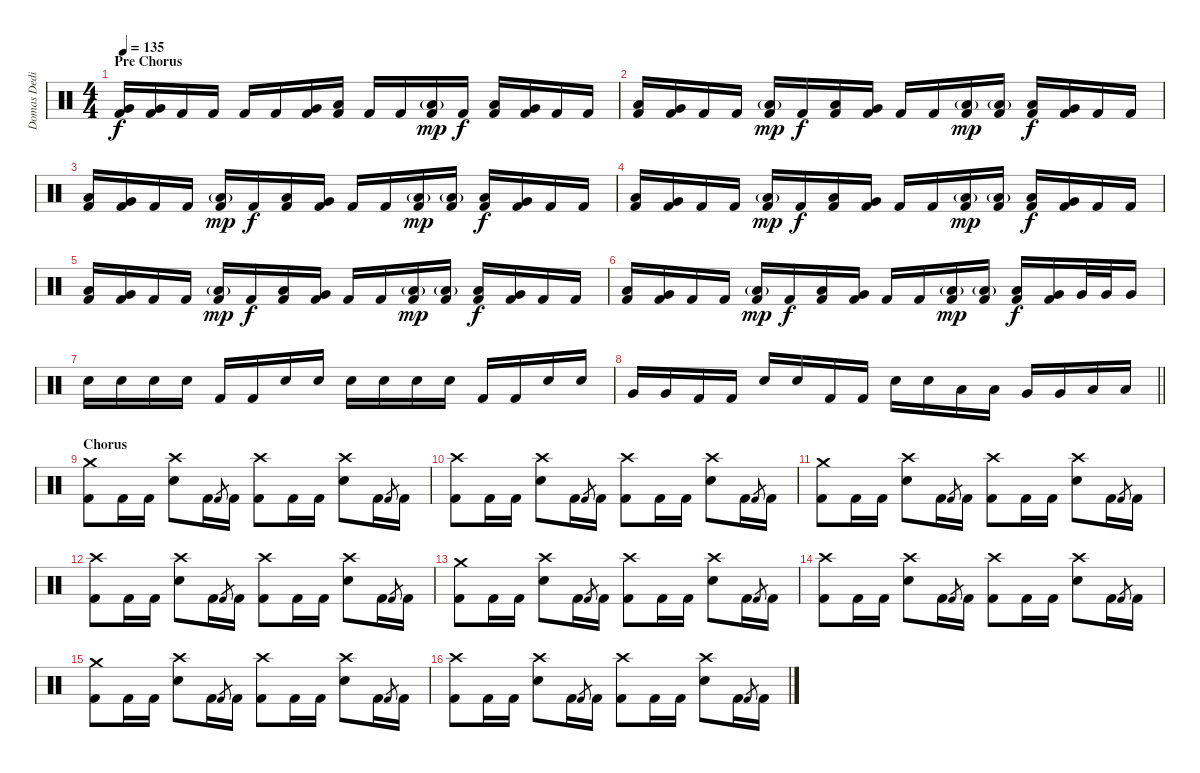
\track ("Domas Dedinas" "Domas Dedi") {instrument percussion}
\staff {score}
\articulation defaults
\ts (4 4)
\section ("" "Pre Chorus")
\tempo 135
\clef neutral
\ks c
("Very Low Tom (hit)" "Kick (hit) 2").16{dy f} ("Very Low Tom (hit)" "Kick (hit) 2").16 "Kick (hit) 2".16 "Kick (hit) 2".16 "Kick (hit) 2".16 "Kick (hit) 2".16 ("Very Low Tom (hit)" "Kick (hit) 2").16 ("Low Floor Tom (hit)" "Kick (hit) 2").16 "Kick (hit) 2".16 "Kick (hit) 2".16 ("Low Floor Tom (hit)"{g} "Kick (hit) 2").16{dy mp} "Kick (hit) 2".16{dy f} ("Low Tom (hit)" "Kick (hit) 2").16 ("Very Low Tom (hit)" "Kick (hit) 2").16 "Kick (hit) 2".16 "Kick (hit) 2".16 |
("Low Tom (hit)" "Kick (hit) 2").16 ("Very Low Tom (hit)" "Kick (hit) 2").16 "Kick (hit) 2".16 "Kick (hit) 2".16 ("Low Floor Tom (hit)"{g} "Kick (hit) 2").16{dy mp} "Kick (hit) 2".16{dy f} ("Low Tom (hit)" "Kick (hit) 2").16 ("Very Low Tom (hit)" "Kick (hit) 2").16 "Kick (hit) 2".16 "Kick (hit) 2".16 ("Low Floor Tom (hit)"{g} "Kick (hit) 2").16{dy mp} ("Low Floor Tom (hit)"{g} "Kick (hit) 2").16 ("Low Tom (hit)" "Kick (hit) 2").16{dy f} ("Very Low Tom (hit)" "Kick (hit) 2").16 "Kick (hit) 2".16 "Kick (hit) 2".16 |
("Low Tom (hit)" "Kick (hit) 2").16 ("Very Low Tom (hit)" "Kick (hit) 2").16 "Kick (hit) 2".16 "Kick (hit) 2".16 ("Low Floor Tom (hit)"{g} "Kick (hit) 2").16{dy mp} "Kick (hit) 2".16{dy f} ("Low Tom (hit)" "Kick (hit) 2").16 ("Very Low Tom (hit)" "Kick (hit) 2").16 "Kick (hit) 2".16 "Kick (hit) 2".16 ("Low Floor Tom (hit)"{g} "Kick (hit) 2").16{dy mp} ("Low Floor Tom (hit)"{g} "Kick (hit) 2").16 ("Low Tom (hit)" "Kick (hit) 2").16{dy f} ("Very Low Tom (hit)" "Kick (hit) 2").16 "Kick (hit) 2".16 "Kick (hit) 2".16 |
("Low Tom (hit)" "Kick (hit) 2").16 ("Very Low Tom (hit)" "Kick (hit) 2").16 "Kick (hit) 2".16 "Kick (hit) 2".16 ("Low Floor Tom (hit)"{g} "Kick (hit) 2").16{dy mp} "Kick (hit) 2".16{dy f} ("Low Tom (hit)" "Kick (hit) 2").16 ("Very Low Tom (hit)" "Kick (hit) 2").16 "Kick (hit) 2".16 "Kick (hit) 2".16 ("Low Floor Tom (hit)"{g} "Kick (hit) 2").16{dy mp} ("Low Floor Tom (hit)"{g} "Kick (hit) 2").16 ("Low Tom (hit)" "Kick (hit) 2").16{dy f} ("Very Low Tom (hit)" "Kick (hit) 2").16 "Kick (hit) 2".16 "Kick (hit) 2".16 |
("Low Tom (hit)" "Kick (hit) 2").16 ("Very Low Tom (hit)" "Kick (hit) 2").16 "Kick (hit) 2".16 "Kick (hit) 2".16 ("Low Floor Tom (hit)"{g} "Kick (hit) 2").16{dy mp} "Kick (hit) 2".16{dy f} ("Low Tom (hit)" "Kick (hit) 2").16 ("Very Low Tom (hit)" "Kick (hit) 2").16 "Kick (hit) 2".16 "Kick (hit) 2".16 ("Low Floor Tom (hit)"{g} "Kick (hit) 2").16{dy mp} ("Low Floor Tom (hit)"{g} "Kick (hit) 2").16 ("Low Tom (hit)" "Kick (hit) 2").16{dy f} ("Very Low Tom (hit)" "Kick (hit) 2").16 "Kick (hit) 2".16 "Kick (hit) 2".16 |
("Low Tom (hit)" "Kick (hit) 2").16 ("Very Low Tom (hit)" "Kick (hit) 2").16 "Kick (hit) 2".16 "Kick (hit) 2".16 ("Low Floor Tom (hit)"{g} "Kick (hit) 2").16{dy mp} "Kick (hit) 2".16{dy f} ("Low Tom (hit)" "Kick (hit) 2").16 ("Very Low Tom (hit)" "Kick (hit) 2").16 "Kick (hit) 2".16 "Kick (hit) 2".16 ("Low Floor Tom (hit)"{g} "Kick (hit) 2").16{dy mp} ("Low Floor Tom (hit)"{g} "Kick (hit) 2").16 ("Low Tom (hit)" "Kick (hit) 2").16{dy f} ("Very Low Tom (hit)" "Kick (hit) 2").16 "Very Low Tom (hit)".32 "Very Low Tom (hit)".32 "Very Low Tom (hit)".16 |
"Snare (hit) 2".16 "Snare (hit) 2".16 "Snare (hit) 2".16 "Snare (hit) 2".16 "Kick (hit) 2".16 "Kick (hit) 2".16 "Snare (hit) 2".16 "Snare (hit) 2".16 "Snare (hit) 2".16 "Snare (hit) 2".16 "Snare (hit) 2".16 "Snare (hit) 2".16 "Kick (hit) 2".16 "Kick (hit) 2".16 "Snare (hit) 2".16 "Snare (hit) 2".16 |
\barLineRight lightlight "Very Low Tom (hit)".16 "Very Low Tom (hit)".16 "Kick (hit) 2".16 "Kick (hit) 2".16 "Snare (hit) 2".16 "Snare (hit) 2".16 "Kick (hit) 2".16 "Kick (hit) 2".16 "Snare (hit) 2".16 "Snare (hit) 2".16 "Low Tom (hit)".16 "Low Tom (hit)".16 "Very Low Tom (hit)".16 "Very Low Tom (hit)".16 "Low Floor Tom (hit)".16 "Low Floor Tom (hit)".16
|
\section ("" "Chorus")
("Crash medium (hit)" "Kick (hit) 2").8 "Kick (hit) 2".16 "Kick (hit) 2".16 ("Crash high (hit)" "Snare (hit) 2").8 "Kick (hit) 2".16 "Kick (hit) 2".8{gr} "Kick (hit) 2".16 ("Crash high (hit)" "Kick (hit) 2").8 "Kick (hit) 2".16 "Kick (hit) 2".16 ("Crash high (hit)" "Snare (hit) 2").8 "Kick (hit) 2".16 "Kick (hit) 2".8{gr} "Kick (hit) 2".16 |
("Crash high (hit)" "Kick (hit) 2").8 "Kick (hit) 2".16 "Kick (hit) 2".16 ("Crash high (hit)" "Snare (hit) 2").8 "Kick (hit) 2".16 "Kick (hit) 2".8{gr} "Kick (hit) 2".16 ("Crash high (hit)" "Kick (hit) 2").8 "Kick (hit) 2".16 "Kick (hit) 2".16 ("Crash high (hit)" "Snare (hit) 2").8 "Kick (hit) 2".16 "Kick (hit) 2".8{gr} "Kick (hit) 2".16 |
("Crash medium (hit)" "Kick (hit) 2").8 "Kick (hit) 2".16 "Kick (hit) 2".16 ("Crash high (hit)" "Snare (hit) 2").8 "Kick (hit) 2".16 "Kick (hit) 2".8{gr} "Kick (hit) 2".16 ("Crash high (hit)" "Kick (hit) 2").8 "Kick (hit) 2".16 "Kick (hit) 2".16 ("Crash high (hit)" "Snare (hit) 2").8 "Kick (hit) 2".16 "Kick (hit) 2".8{gr} "Kick (hit) 2".16 |
("Crash high (hit)" "Kick (hit) 2").8 "Kick (hit) 2".16 "Kick (hit) 2".16 ("Crash high (hit)" "Snare (hit) 2").8 "Kick (hit) 2".16 "Kick (hit) 2".8{gr} "Kick (hit) 2".16 ("Crash high (hit)" "Kick (hit) 2").8 "Kick (hit) 2".16 "Kick (hit) 2".16 ("Crash high (hit)" "Snare (hit) 2").8 "Kick (hit) 2".16 "Kick (hit) 2".8{gr} "Kick (hit) 2".16 |
("Crash medium (hit)" "Kick (hit) 2").8 "Kick (hit) 2".16 "Kick (hit) 2".16 ("Crash high (hit)" "Snare (hit) 2").8 "Kick (hit) 2".16 "Kick (hit) 2".8{gr} "Kick (hit) 2".16 ("Crash high (hit)" "Kick (hit) 2").8 "Kick (hit) 2".16 "Kick (hit) 2".16 ("Crash high (hit)" "Snare (hit) 2").8 "Kick (hit) 2".16 "Kick (hit) 2".8{gr} "Kick (hit) 2".16 |
("Crash high (hit)" "Kick (hit) 2").8 "Kick (hit) 2".16 "Kick (hit) 2".16 ("Crash high (hit)" "Snare (hit) 2").8 "Kick (hit) 2".16 "Kick (hit) 2".8{gr} "Kick (hit) 2".16 ("Crash high (hit)" "Kick (hit) 2").8 "Kick (hit) 2".16 "Kick (hit) 2".16 ("Crash high (hit)" "Snare (hit) 2").8 "Kick (hit) 2".16 "Kick (hit) 2".8{gr} "Kick (hit) 2".16 |
("Crash medium (hit)" "Kick (hit) 2").8 "Kick (hit) 2".16 "Kick (hit) 2".16 ("Crash high (hit)" "Snare (hit) 2").8 "Kick (hit) 2".16 "Kick (hit) 2".8{gr} "Kick (hit) 2".16 ("Crash high (hit)" "Kick (hit) 2").8 "Kick (hit) 2".16 "Kick (hit) 2".16 ("Crash high (hit)" "Snare (hit) 2").8 "Kick (hit) 2".16 "Kick (hit) 2".8{gr} "Kick (hit) 2".16 |
("Crash high (hit)" "Kick (hit) 2").8 "Kick (hit) 2".16 "Kick (hit) 2".16 ("Crash high (hit)" "Snare (hit) 2").8 "Kick (hit) 2".16 "Kick (hit) 2".8{gr} "Kick (hit) 2".16 ("Crash high (hit)" "Kick (hit) 2").8 "Kick (hit) 2".16 "Kick (hit) 2".16 ("Crash high (hit)" "Snare (hit) 2").8 "Kick (hit) 2".16 "Kick (hit) 2".8{gr} "Kick (hit) 2".16
